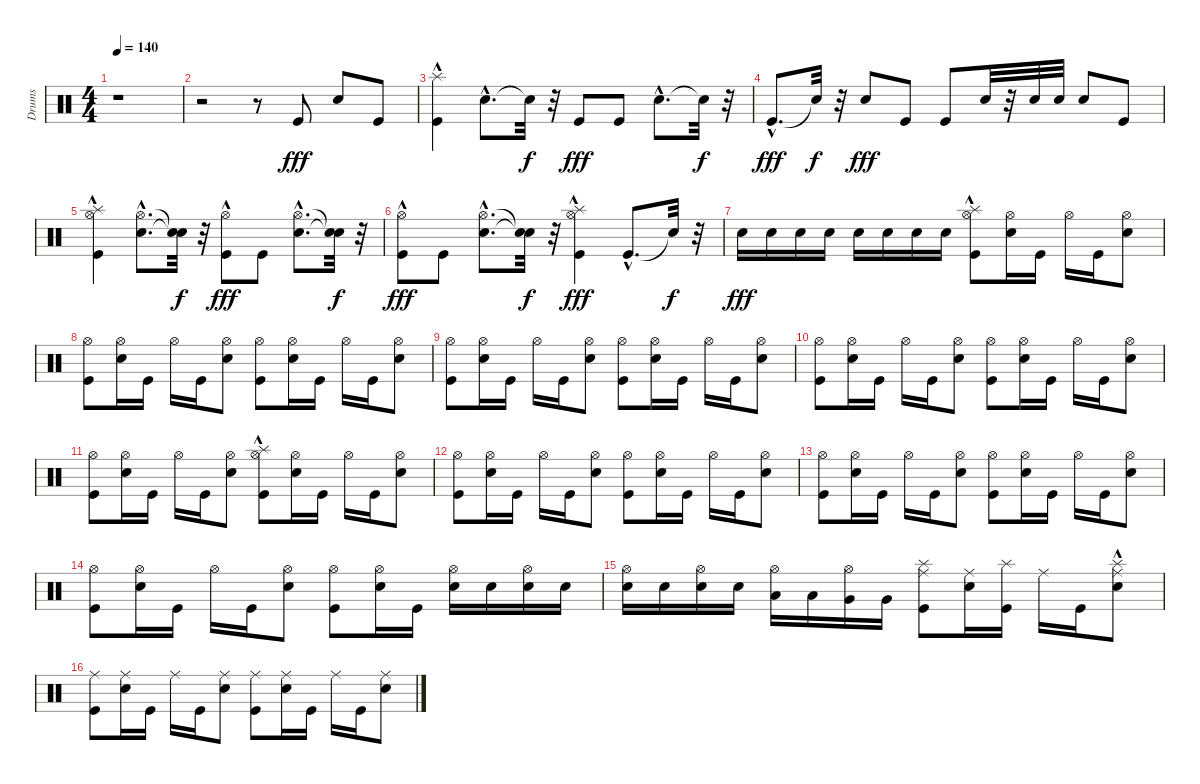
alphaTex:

\track ("Drums" "Drums") {instrument percussion}
\staff {score}
\articulation defaults
\ts (4 4)
\tempo 140
\clef neutral
\ks c
r.1{dy fff} |
r.2 r.8 "Kick (hit)".8 "Electric Snare (hit)".8 "Kick (hit)".8 |
("Kick (hit)"{hac} "Splash (hit)"{hac}).4 "Electric Snare (hit)"{hac}.8{d} "Snare (hit)"{t}.32{dy f} r.32 "Kick (hit)".8{dy fff} "Kick (hit)".8 "Electric Snare (hit)"{hac}.8{d} "Snare (hit)"{t}.32{dy f} r.32 |
"Kick (hit)"{hac}.8{d dy fff} "Snare (hit)"{t}.32{dy f} r.32 "Electric Snare (hit)".8{dy fff} "Kick (hit)".8 "Kick (hit)".8 "Electric Snare (hit)".32 r.32 "Electric Snare (hit)".32 "Electric Snare (hit)".32 "Electric Snare (hit)".8 "Kick (hit)".8 |
("Hi-Hat (open)"{hac} "Splash (hit)"{hac} "Kick (hit)"{hac}).4 ("Electric Snare (hit)"{hac} "Hi-Hat (open)"{hac}).8{d} ("Snare (hit)"{t} "Snare (hit)"{t}).32{dy f} r.32 ("Kick (hit)" "Hi-Hat (open)"{hac}).8{dy fff} "Kick (hit)".8 ("Hi-Hat (open)"{hac} "Electric Snare (hit)"{hac}).8{d} ("Snare (hit)"{t} "Snare (hit)"{t}).32{dy f} r.32 |
("Hi-Hat (open)"{hac} "Kick (hit)").8{dy fff} "Kick (hit)".8 ("Electric Snare (hit)"{hac} "Hi-Hat (open)"{hac}).8{d} ("Snare (hit)"{t} "Snare (hit)"{t}).32{dy f} r.32 ("Splash (hit)"{hac} "Hi-Hat (open)"{hac} "Kick (hit)"{hac}).4{dy fff} "Kick (hit)"{hac}.8{d} "Snare (hit)"{t}.32{dy f} r.32 |
"Electric Snare (hit)".16{dy fff} "Electric Snare (hit)".16 "Electric Snare (hit)".16 "Electric Snare (hit)".16 "Electric Snare (hit)".16 "Electric Snare (hit)".16 "Electric Snare (hit)".16 "Electric Snare (hit)".16 ("Hi-Hat (open)" "Kick (hit)" "Splash (hit)"{hac}).8 ("Hi-Hat (open)" "Electric Snare (hit)").16 "Kick (hit)".16 "Hi-Hat (open)".16 "Kick (hit)".16 ("Electric Snare (hit)" "Hi-Hat (open)").8 |
("Hi-Hat (open)" "Kick (hit)").8 ("Electric Snare (hit)" "Hi-Hat (open)").16 "Kick (hit)".16 "Hi-Hat (open)".16 "Kick (hit)".16 ("Hi-Hat (open)" "Electric Snare (hit)").8 ("Kick (hit)" "Hi-Hat (open)").8 ("Electric Snare (hit)" "Hi-Hat (open)").16 "Kick (hit)".16 "Hi-Hat (open)".16 "Kick (hit)".16 ("Hi-Hat (open)" "Electric Snare (hit)").8 |
("Hi-Hat (open)" "Kick (hit)").8 ("Electric Snare (hit)" "Hi-Hat (open)").16 "Kick (hit)".16 "Hi-Hat (open)".16 "Kick (hit)".16 ("Hi-Hat (open)" "Electric Snare (hit)").8 ("Kick (hit)" "Hi-Hat (open)").8 ("Hi-Hat (open)" "Electric Snare (hit)").16 "Kick (hit)".16 "Hi-Hat (open)".16 "Kick (hit)".16 ("Hi-Hat (open)" "Electric Snare (hit)").8 |
("Hi-Hat (open)" "Kick (hit)").8 ("Hi-Hat (open)" "Electric Snare (hit)").16 "Kick (hit)".16 "Hi-Hat (open)".16 "Kick (hit)".16 ("Electric Snare (hit)" "Hi-Hat (open)").8 ("Hi-Hat (open)" "Kick (hit)").8 ("Electric Snare (hit)" "Hi-Hat (open)").16 "Kick (hit)".16 "Hi-Hat (open)".16 "Kick (hit)".16 ("Hi-Hat (open)" "Electric Snare (hit)").8 |
("Kick (hit)" "Hi-Hat (open)").8 ("Electric Snare (hit)" "Hi-Hat (open)").16 "Kick (hit)".16 "Hi-Hat (open)".16 "Kick (hit)".16 ("Hi-Hat (open)" "Electric Snare (hit)").8 ("Hi-Hat (open)" "Splash (hit)"{hac} "Kick (hit)").8 ("Electric Snare (hit)" "Hi-Hat (open)").16 "Kick (hit)".16 "Hi-Hat (open)".16 "Kick (hit)".16 ("Hi-Hat (open)" "Electric Snare (hit)").8 |
("Hi-Hat (open)" "Kick (hit)").8 ("Hi-Hat (open)" "Electric Snare (hit)").16 "Kick (hit)".16 "Hi-Hat (open)".16 "Kick (hit)".16 ("Electric Snare (hit)" "Hi-Hat (open)").8 ("Hi-Hat (open)" "Kick (hit)").8 ("Electric Snare (hit)" "Hi-Hat (open)").16 "Kick (hit)".16 "Hi-Hat (open)".16 "Kick (hit)".16 ("Electric Snare (hit)" "Hi-Hat (open)").8 |
("Kick (hit)" "Hi-Hat (open)").8 ("Electric Snare (hit)" "Hi-Hat (open)").16 "Kick (hit)".16 "Hi-Hat (open)".16 "Kick (hit)".16 ("Hi-Hat (open)" "Electric Snare (hit)").8 ("Kick (hit)" "Hi-Hat (open)").8 ("Hi-Hat (open)" "Electric Snare (hit)").16 "Kick (hit)".16 "Hi-Hat (open)".16 "Kick (hit)".16 ("Electric Snare (hit)" "Hi-Hat (open)").8 |
("Hi-Hat (open)" "Kick (hit)").8 ("Electric Snare (hit)" "Hi-Hat (open)").16 "Kick (hit)".16 "Hi-Hat (open)".16 "Kick (hit)".16 ("Hi-Hat (open)" "Electric Snare (hit)").8 ("Hi-Hat (open)" "Kick (hit)").8 ("Hi-Hat (open)" "Electric Snare (hit)").16 "Kick (hit)".16 ("Electric Snare (hit)" "Hi-Hat (open)").16 "Electric Snare (hit)".16 ("Electric Snare (hit)" "Hi-Hat (open)").16 "Electric Snare (hit)".16 |
("Electric Snare (hit)" "Hi-Hat (open)").16 "Electric Snare (hit)".16 ("Electric Snare (hit)" "Hi-Hat (open)").16 "Electric Snare (hit)".16 ("Hi-Hat (open)" "Low Tom (hit)").16 "Low Tom (hit)".16 ("Very Low Tom (hit)" "Hi-Hat (open)").16 "Very Low Tom (hit)".16 ("Ride (middle)" "Kick (hit)" "Splash (hit)").8 ("Electric Snare (hit)" "Ride (middle)").16 ("Kick (hit)" "Splash (hit)").16 "Ride (middle)".16 "Kick (hit)".16 ("Ride (middle)" "Electric Snare (hit)" "Splash (hit)"{hac}).8 |
("Kick (hit)" "Ride (middle)").8 ("Electric Snare (hit)" "Ride (middle)").16 "Kick (hit)".16 "Ride (middle)".16 "Kick (hit)".16 ("Ride (middle)" "Electric Snare (hit)").8 ("Kick (hit)" "Ride (middle)").8 ("Ride (middle)" "Electric Snare (hit)").16 "Kick (hit)".16 "Ride (middle)".16 "Kick (hit)".16 ("Ride (middle)" "Electric Snare (hit)").8
